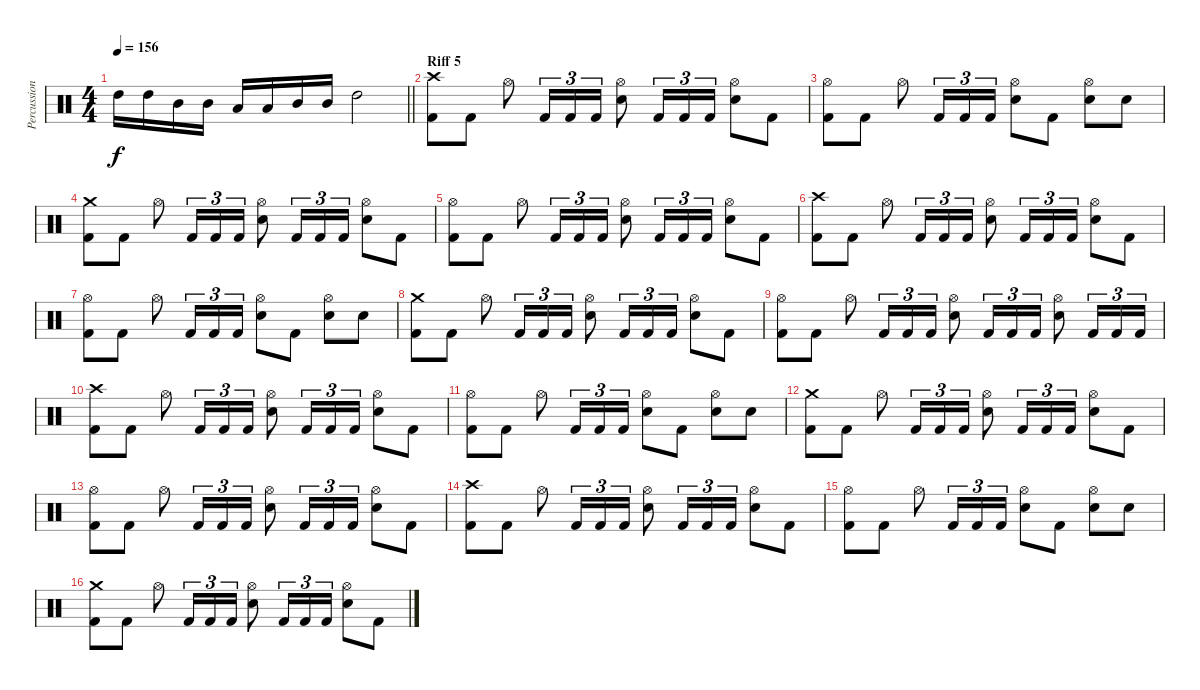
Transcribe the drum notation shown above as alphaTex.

\track ("Percussion" "Percussion") {instrument percussion}
\staff {score}
\articulation defaults
\ts (4 4)
\tempo 156
\clef neutral
\barLineRight lightlight
\ks c "High Tom (hit)".16{dy f} "High Tom (hit)".16 "Mid Tom (hit)".16 "Mid Tom (hit)".16 "Low Tom (hit)".16 "Low Tom (hit)".16 "Mid Tom (hit)".16 "Mid Tom (hit)".16 "High Tom (hit)".2
|
\section ("" "Riff 5")
("Crash high (hit)" "Kick (hit) 2").8 "Kick (hit) 2".8 "Hi-Hat (open)".8 "Kick (hit) 2".16{tu (3 2)} "Kick (hit) 2".16{tu (3 2)} "Kick (hit) 2".16{tu (3 2)} ("Hi-Hat (open)" "Snare (hit) 2").8 "Kick (hit) 2".16{tu (3 2)} "Kick (hit) 2".16{tu (3 2)} "Kick (hit) 2".16{tu (3 2)} ("Hi-Hat (open)" "Snare (hit) 2").8 "Kick (hit) 2".8 |
("Hi-Hat (open)" "Kick (hit) 2").8 "Kick (hit) 2".8 "Hi-Hat (open)".8 "Kick (hit) 2".16{tu (3 2)} "Kick (hit) 2".16{tu (3 2)} "Kick (hit) 2".16{tu (3 2)} ("Hi-Hat (open)" "Snare (hit) 2").8 "Kick (hit) 2".8 ("Hi-Hat (open)" "Snare (hit) 2").8 "Snare (hit) 2".8 |
("Crash medium (hit)" "Kick (hit) 2").8 "Kick (hit) 2".8 "Hi-Hat (open)".8 "Kick (hit) 2".16{tu (3 2)} "Kick (hit) 2".16{tu (3 2)} "Kick (hit) 2".16{tu (3 2)} ("Hi-Hat (open)" "Snare (hit) 2").8 "Kick (hit) 2".16{tu (3 2)} "Kick (hit) 2".16{tu (3 2)} "Kick (hit) 2".16{tu (3 2)} ("Hi-Hat (open)" "Snare (hit) 2").8 "Kick (hit) 2".8 |
("Hi-Hat (open)" "Kick (hit) 2").8 "Kick (hit) 2".8 "Hi-Hat (open)".8 "Kick (hit) 2".16{tu (3 2)} "Kick (hit) 2".16{tu (3 2)} "Kick (hit) 2".16{tu (3 2)} ("Hi-Hat (open)" "Snare (hit) 2").8 "Kick (hit) 2".16{tu (3 2)} "Kick (hit) 2".16{tu (3 2)} "Kick (hit) 2".16{tu (3 2)} ("Hi-Hat (open)" "Snare (hit) 2").8 "Kick (hit) 2".8 |
("Crash high (hit)" "Kick (hit) 2").8 "Kick (hit) 2".8 "Hi-Hat (open)".8 "Kick (hit) 2".16{tu (3 2)} "Kick (hit) 2".16{tu (3 2)} "Kick (hit) 2".16{tu (3 2)} ("Hi-Hat (open)" "Snare (hit) 2").8 "Kick (hit) 2".16{tu (3 2)} "Kick (hit) 2".16{tu (3 2)} "Kick (hit) 2".16{tu (3 2)} ("Hi-Hat (open)" "Snare (hit) 2").8 "Kick (hit) 2".8 |
("Hi-Hat (open)" "Kick (hit) 2").8 "Kick (hit) 2".8 "Hi-Hat (open)".8 "Kick (hit) 2".16{tu (3 2)} "Kick (hit) 2".16{tu (3 2)} "Kick (hit) 2".16{tu (3 2)} ("Hi-Hat (open)" "Snare (hit) 2").8 "Kick (hit) 2".8 ("Hi-Hat (open)" "Snare (hit) 2").8 "Snare (hit) 2".8 |
("Crash medium (hit)" "Kick (hit) 2").8 "Kick (hit) 2".8 "Hi-Hat (open)".8 "Kick (hit) 2".16{tu (3 2)} "Kick (hit) 2".16{tu (3 2)} "Kick (hit) 2".16{tu (3 2)} ("Hi-Hat (open)" "Snare (hit) 2").8 "Kick (hit) 2".16{tu (3 2)} "Kick (hit) 2".16{tu (3 2)} "Kick (hit) 2".16{tu (3 2)} ("Hi-Hat (open)" "Snare (hit) 2").8 "Kick (hit) 2".8 |
("Hi-Hat (open)" "Kick (hit) 2").8 "Kick (hit) 2".8 "Hi-Hat (open)".8 "Kick (hit) 2".16{tu (3 2)} "Kick (hit) 2".16{tu (3 2)} "Kick (hit) 2".16{tu (3 2)} ("Hi-Hat (open)" "Snare (hit) 2").8 "Kick (hit) 2".16{tu (3 2)} "Kick (hit) 2".16{tu (3 2)} "Kick (hit) 2".16{tu (3 2)} ("Hi-Hat (open)" "Snare (hit) 2").8 "Kick (hit) 2".16{tu (3 2)} "Kick (hit) 2".16{tu (3 2)} "Kick (hit) 2".16{tu (3 2)} |
("Crash high (hit)" "Kick (hit) 2").8 "Kick (hit) 2".8 "Hi-Hat (open)".8 "Kick (hit) 2".16{tu (3 2)} "Kick (hit) 2".16{tu (3 2)} "Kick (hit) 2".16{tu (3 2)} ("Hi-Hat (open)" "Snare (hit) 2").8 "Kick (hit) 2".16{tu (3 2)} "Kick (hit) 2".16{tu (3 2)} "Kick (hit) 2".16{tu (3 2)} ("Hi-Hat (open)" "Snare (hit) 2").8 "Kick (hit) 2".8 |
("Hi-Hat (open)" "Kick (hit) 2").8 "Kick (hit) 2".8 "Hi-Hat (open)".8 "Kick (hit) 2".16{tu (3 2)} "Kick (hit) 2".16{tu (3 2)} "Kick (hit) 2".16{tu (3 2)} ("Hi-Hat (open)" "Snare (hit) 2").8 "Kick (hit) 2".8 ("Hi-Hat (open)" "Snare (hit) 2").8 "Snare (hit) 2".8 |
("Crash medium (hit)" "Kick (hit) 2").8 "Kick (hit) 2".8 "Hi-Hat (open)".8 "Kick (hit) 2".16{tu (3 2)} "Kick (hit) 2".16{tu (3 2)} "Kick (hit) 2".16{tu (3 2)} ("Hi-Hat (open)" "Snare (hit) 2").8 "Kick (hit) 2".16{tu (3 2)} "Kick (hit) 2".16{tu (3 2)} "Kick (hit) 2".16{tu (3 2)} ("Hi-Hat (open)" "Snare (hit) 2").8 "Kick (hit) 2".8 |
("Hi-Hat (open)" "Kick (hit) 2").8 "Kick (hit) 2".8 "Hi-Hat (open)".8 "Kick (hit) 2".16{tu (3 2)} "Kick (hit) 2".16{tu (3 2)} "Kick (hit) 2".16{tu (3 2)} ("Hi-Hat (open)" "Snare (hit) 2").8 "Kick (hit) 2".16{tu (3 2)} "Kick (hit) 2".16{tu (3 2)} "Kick (hit) 2".16{tu (3 2)} ("Hi-Hat (open)" "Snare (hit) 2").8 "Kick (hit) 2".8 |
("Crash high (hit)" "Kick (hit) 2").8 "Kick (hit) 2".8 "Hi-Hat (open)".8 "Kick (hit) 2".16{tu (3 2)} "Kick (hit) 2".16{tu (3 2)} "Kick (hit) 2".16{tu (3 2)} ("Hi-Hat (open)" "Snare (hit) 2").8 "Kick (hit) 2".16{tu (3 2)} "Kick (hit) 2".16{tu (3 2)} "Kick (hit) 2".16{tu (3 2)} ("Hi-Hat (open)" "Snare (hit) 2").8 "Kick (hit) 2".8 |
("Hi-Hat (open)" "Kick (hit) 2").8 "Kick (hit) 2".8 "Hi-Hat (open)".8 "Kick (hit) 2".16{tu (3 2)} "Kick (hit) 2".16{tu (3 2)} "Kick (hit) 2".16{tu (3 2)} ("Hi-Hat (open)" "Snare (hit) 2").8 "Kick (hit) 2".8 ("Hi-Hat (open)" "Snare (hit) 2").8 "Snare (hit) 2".8 |
("Crash medium (hit)" "Kick (hit) 2").8 "Kick (hit) 2".8 "Hi-Hat (open)".8 "Kick (hit) 2".16{tu (3 2)} "Kick (hit) 2".16{tu (3 2)} "Kick (hit) 2".16{tu (3 2)} ("Hi-Hat (open)" "Snare (hit) 2").8 "Kick (hit) 2".16{tu (3 2)} "Kick (hit) 2".16{tu (3 2)} "Kick (hit) 2".16{tu (3 2)} ("Hi-Hat (open)" "Snare (hit) 2").8 "Kick (hit) 2".8
